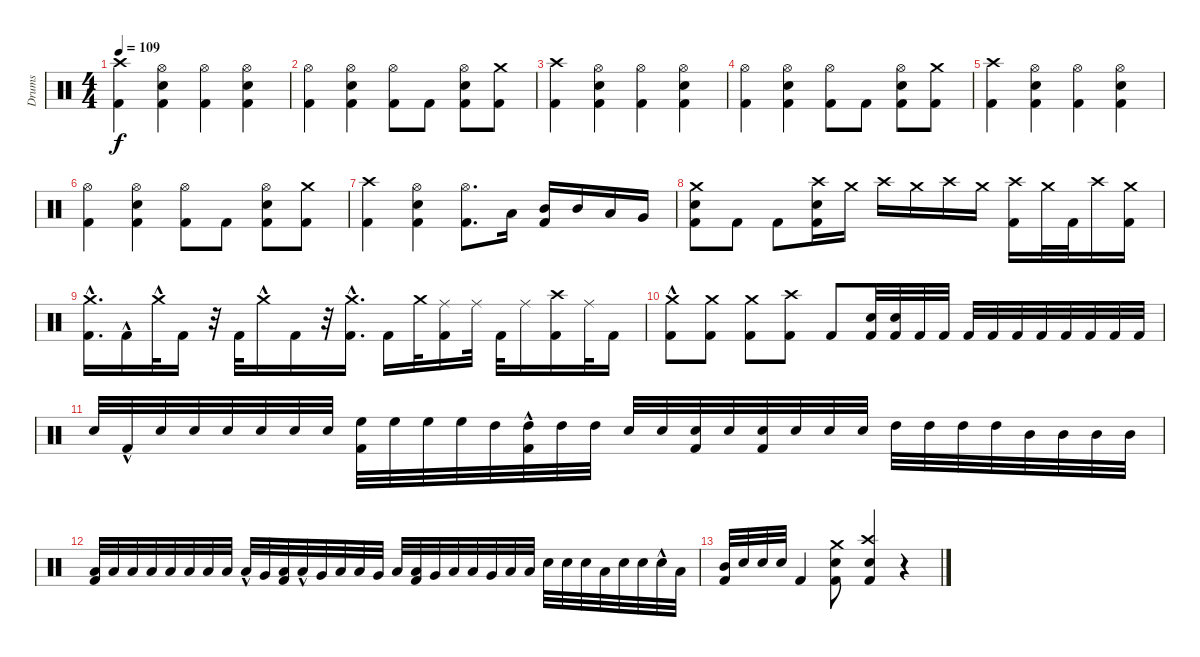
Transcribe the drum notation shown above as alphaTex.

\track ("Drums" "Drums") {instrument percussion}
\staff {score}
\articulation defaults
\ts (4 4)
\tempo 109
\clef neutral
\ks c
("Kick (hit) 2" "Crash high (hit)").4{dy f} ("Snare (hit) 2" "Hi-Hat (open)" "Kick (hit) 2").4 ("Kick (hit) 2" "Hi-Hat (open)").4 ("Snare (hit) 2" "Kick (hit) 2" "Hi-Hat (open)").4 |
("Hi-Hat (open)" "Kick (hit) 2").4 ("Snare (hit) 2" "Hi-Hat (open)" "Kick (hit) 2").4 ("Hi-Hat (open)" "Kick (hit) 2").8 "Kick (hit) 2".8 ("Snare (hit) 2" "Hi-Hat (open)" "Kick (hit) 2").8 ("Kick (hit) 2" "Crash medium (hit)").8 |
("Kick (hit) 2" "Crash high (hit)").4 ("Hi-Hat (open)" "Kick (hit) 2" "Snare (hit) 2").4 ("Hi-Hat (open)" "Kick (hit) 2").4 ("Hi-Hat (open)" "Kick (hit) 2" "Snare (hit) 2").4 |
("Hi-Hat (open)" "Kick (hit) 2").4 ("Hi-Hat (open)" "Kick (hit) 2" "Snare (hit) 2").4 ("Hi-Hat (open)" "Kick (hit) 2").8 "Kick (hit) 2".8 ("Kick (hit) 2" "Hi-Hat (open)" "Snare (hit) 2").8 ("Kick (hit) 2" "Crash medium (hit)").8 |
("Kick (hit) 2" "Crash high (hit)").4 ("Hi-Hat (open)" "Kick (hit) 2" "Snare (hit) 2").4 ("Hi-Hat (open)" "Kick (hit) 2").4 ("Snare (hit) 2" "Kick (hit) 2" "Hi-Hat (open)").4 |
("Kick (hit) 2" "Hi-Hat (open)").4 ("Snare (hit) 2" "Kick (hit) 2" "Hi-Hat (open)").4 ("Kick (hit) 2" "Hi-Hat (open)").8 "Kick (hit) 2".8 ("Kick (hit) 2" "Hi-Hat (open)" "Snare (hit) 2").8 ("Crash medium (hit)" "Kick (hit) 2").8 |
("Kick (hit) 2" "Crash high (hit)").4 ("Snare (hit) 2" "Hi-Hat (open)" "Kick (hit) 2").4 ("Hi-Hat (open)" "Kick (hit) 2").8{d} "Low Tom (hit)".16 ("Kick (hit) 2" "Mid Tom (hit)").16 "Mid Tom (hit)".16 "Low Tom (hit)".16 "Very Low Tom (hit)".16 |
("Snare (hit) 2" "Crash medium (hit)" "Kick (hit) 2").8 "Kick (hit) 2".8 "Kick (hit) 2".8 ("Snare (hit) 2" "Kick (hit) 2" "Crash high (hit)").16 "Crash medium (hit)".16 "Crash high (hit)".16 "Crash medium (hit)".16 "Crash high (hit)".16 "Crash medium (hit)".16 ("Crash high (hit)" "Kick (hit) 2").16 "Crash medium (hit)".32 "Kick (hit) 2".32 "Crash high (hit)".16 ("Crash medium (hit)" "Kick (hit) 2").16 |
("Kick (hit) 2"{hac} "Crash medium (hit)").16{d} "Kick (hit) 2"{hac}.16 "Crash medium (hit)"{hac}.32 "Kick (hit) 2".16 r.32 "Kick (hit) 2".32 "Crash medium (hit)"{hac}.16 "Kick (hit) 2".16 r.32 ("Kick (hit) 2" "Crash medium (hit)"{hac}).16{d} "Kick (hit) 2".16 "Crash medium (hit)".32 ("Ride (middle)" "Kick (hit) 2").16 "Ride (middle)".32 "Kick (hit) 2".32 "Ride (middle)".16 ("Kick (hit) 2" "Crash high (hit)").16 "Ride (middle)".32 "Kick (hit) 2".16 |
("Kick (hit) 2"{hac} "Crash medium (hit)").8 ("Crash medium (hit)" "Kick (hit) 2").8 ("Kick (hit) 2" "Crash medium (hit)").8 ("Kick (hit) 2" "Crash high (hit)").8 "Kick (hit) 2".8 ("Kick (hit) 2" "Snare (hit) 2").32 ("Kick (hit) 2" "Snare (hit) 2").32 "Kick (hit) 2".32 "Kick (hit) 2".32 "Kick (hit) 2".32 "Kick (hit) 2".32 "Kick (hit) 2".32 "Kick (hit) 2".32 "Kick (hit) 2".32 "Kick (hit) 2".32 "Kick (hit) 2".32 "Kick (hit) 2".32 |
"Snare (hit) 2".32 "Kick (hit) 2"{hac}.32 "Snare (hit) 2".32 "Snare (hit) 2".32 "Snare (hit) 2".32 "Snare (hit) 2".32 "Snare (hit) 2".32 "Snare (hit) 2".32 ("High Floor Tom (hit)" "Kick (hit) 2").32 "High Floor Tom (hit)".32 "High Floor Tom (hit)".32 "High Floor Tom (hit)".32 "High Tom (hit)".32 ("High Tom (hit)" "Kick (hit) 2"{hac}).32 "High Tom (hit)".32 "High Tom (hit)".32 "Snare (hit) 2".32 "Snare (hit) 2".32 ("Snare (hit) 2" "Kick (hit) 2").32 "Snare (hit) 2".32 ("Snare (hit) 2" "Kick (hit) 2").32 "Snare (hit) 2".32 "Snare (hit) 2".32 "Snare (hit) 2".32 "High Tom (hit)".32 "High Tom (hit)".32 "High Tom (hit)".32 "High Tom (hit)".32 "Mid Tom (hit)".32 "Mid Tom (hit)".32 "Mid Tom (hit)".32 "Mid Tom (hit)".32 |
("Low Tom (hit)" "Kick (hit) 2").32 "Low Tom (hit)".32 "Low Tom (hit)".32 "Low Tom (hit)".32 "Low Tom (hit)".32 "Low Tom (hit)".32 "Low Tom (hit)".32 "Low Tom (hit)".32 "Low Tom (hit)"{hac}.32 "Very Low Tom (hit)".32 ("Low Floor Tom (hit)" "Kick (hit) 2").32 "Low Tom (hit)"{hac}.32 "Very Low Tom (hit)".32 "Low Floor Tom (hit)".32 "Low Tom (hit)".32 "Very Low Tom (hit)".32 "Low Floor Tom (hit)".32 ("Low Tom (hit)" "Kick (hit) 2").32 "Very Low Tom (hit)".32 "Low Floor Tom (hit)".32 "Low Tom (hit)".32 "Very Low Tom (hit)".32 "Low Floor Tom (hit)".32 "Low Tom (hit)".32 "Snare (hit) 2".32 "Snare (hit) 2".32 "Snare (hit) 2".32 "Low Tom (hit)".32 "Snare (hit) 2".32 "Snare (hit) 2".32 "Snare (hit) 2"{hac}.32 "Low Tom (hit)".32 |
("Kick (hit) 2" "Mid Tom (hit)").32 "Snare (hit) 2".32 "Snare (hit) 2".32 "Snare (hit) 2".32 "Kick (hit) 2".4 ("Snare (hit) 2" "Kick (hit) 2" "Crash medium (hit)").8 ("Snare (hit) 2" "Crash high (hit)" "Kick (hit) 2").4 r.4
